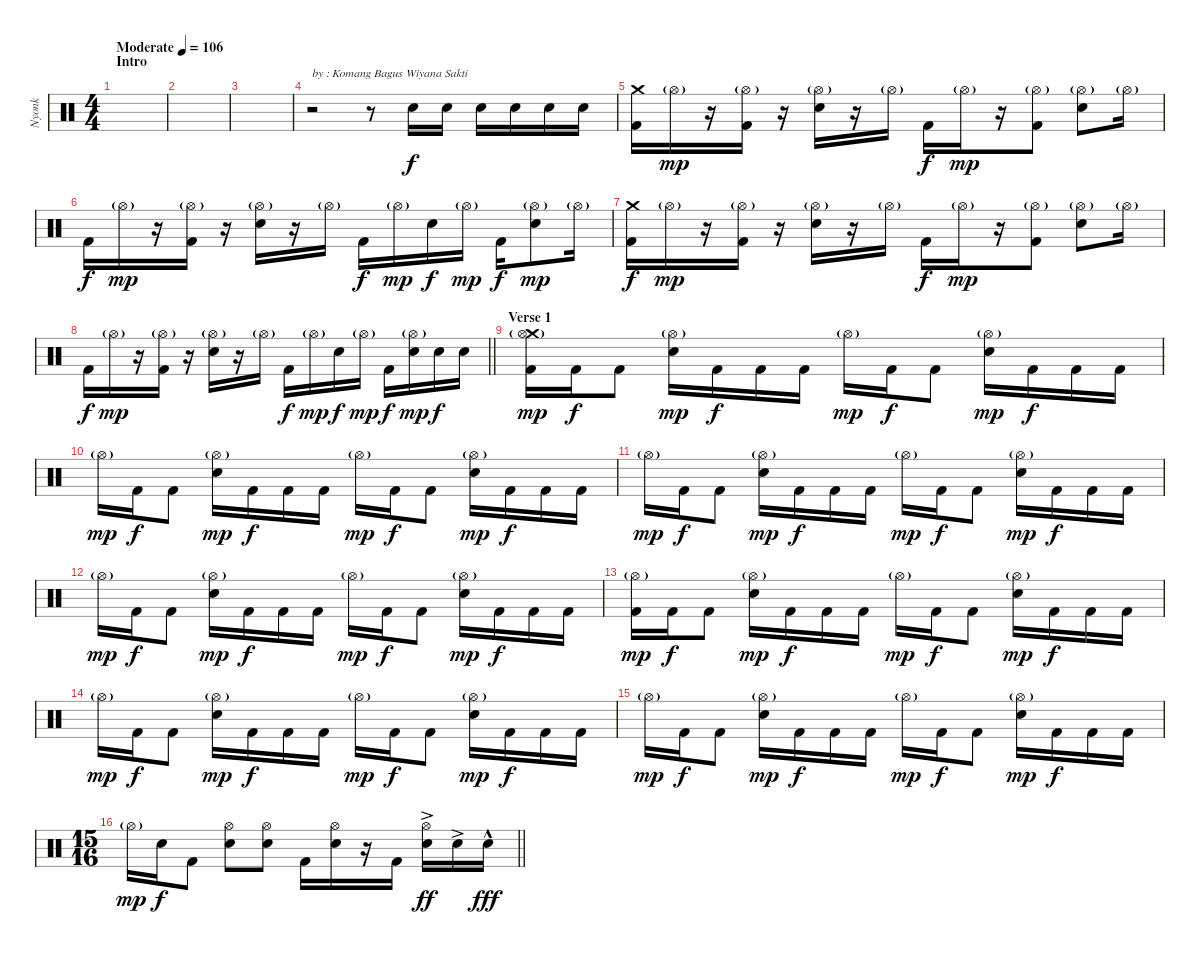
\track ("Nyonk" "Nyonk") {instrument percussion}
\staff {score}
\articulation defaults
\ts (4 4)
\section ("" "Intro")
\tempo (106 "Moderate")
\clef neutral
\ks c
|
|
|
r.2{txt "by : Komang Bagus Wiyana Sakti"} r.8 "Electric Snare (hit)".16 "Electric Snare (hit)".16 "Electric Snare (hit)".16 "Electric Snare (hit)".16 "Electric Snare (hit)".16 "Electric Snare (hit)".16 |
("Crash medium (hit)" "Kick (hit) 2").16 "Hi-Hat (open)"{g}.16{dy mp} r.16 ("Hi-Hat (open)"{g} "Kick (hit) 2").16 r.16 ("Hi-Hat (open)"{g} "Electric Snare (hit)").16 r.16 "Hi-Hat (open)"{g}.16 "Kick (hit) 2".16{dy f} "Hi-Hat (open)"{g}.16{dy mp} r.16 ("Hi-Hat (open)"{g} "Kick (hit) 2").8 ("Hi-Hat (open)"{g} "Electric Snare (hit)").8 "Hi-Hat (open)"{g}.16 |
"Kick (hit) 2".16{dy f} "Hi-Hat (open)"{g}.16{dy mp} r.16 ("Hi-Hat (open)"{g} "Kick (hit) 2").16 r.16 ("Hi-Hat (open)"{g} "Electric Snare (hit)").16 r.16 "Hi-Hat (open)"{g}.16 "Kick (hit) 2".16{dy f} "Hi-Hat (open)"{g}.16{dy mp} "Electric Snare (hit)".16{dy f} "Hi-Hat (open)"{g}.16{dy mp} "Kick (hit) 2".16{dy f} ("Hi-Hat (open)"{g} "Electric Snare (hit)").8{dy mp} "Hi-Hat (open)"{g}.16 |
("Crash medium (hit)" "Kick (hit) 2").16{dy f} "Hi-Hat (open)"{g}.16{dy mp} r.16 ("Hi-Hat (open)"{g} "Kick (hit) 2").16 r.16 ("Hi-Hat (open)"{g} "Electric Snare (hit)").16 r.16 "Hi-Hat (open)"{g}.16 "Kick (hit) 2".16{dy f} "Hi-Hat (open)"{g}.16{dy mp} r.16 ("Hi-Hat (open)"{g} "Kick (hit) 2").8 ("Hi-Hat (open)"{g} "Electric Snare (hit)").8 "Hi-Hat (open)"{g}.16 |
\barLineRight lightlight "Kick (hit) 2".16{dy f} "Hi-Hat (open)"{g}.16{dy mp}
r.16 ("Hi-Hat (open)"{g} "Kick (hit) 2").16 r.16 ("Hi-Hat (open)"{g} "Electric Snare (hit)").16 r.16 "Hi-Hat (open)"{g}.16 "Kick (hit) 2".16{dy f} "Hi-Hat (open)"{g}.16{dy mp} "Electric Snare (hit)".16{dy f} "Hi-Hat (open)"{g}.16{dy mp} "Kick (hit) 2".16{dy f} ("Hi-Hat (open)"{g} "Electric Snare (hit)").16{dy mp} "Electric Snare (hit)".16{dy f} "Electric Snare (hit)".16 |
\section ("" "Verse 1")
("Crash medium (hit)" "Hi-Hat (open)"{g} "Kick (hit) 2").16{dy mp} "Kick (hit) 2".16{dy f} "Kick (hit) 2".8 ("Hi-Hat (open)"{g} "Electric Snare (hit)").16{dy mp} "Kick (hit) 2".16{dy f} "Kick (hit) 2".16 "Kick (hit) 2".16 "Hi-Hat (open)"{g}.16{dy mp} "Kick (hit) 2".16{dy f} "Kick (hit) 2".8 ("Hi-Hat (open)"{g} "Electric Snare (hit)").16{dy mp} "Kick (hit) 2".16{dy f} "Kick (hit) 2".16 "Kick (hit) 2".16 |
"Hi-Hat (open)"{g}.16{dy mp} "Kick (hit) 2".16{dy f} "Kick (hit) 2".8 ("Hi-Hat (open)"{g} "Electric Snare (hit)").16{dy mp} "Kick (hit) 2".16{dy f} "Kick (hit) 2".16 "Kick (hit) 2".16 "Hi-Hat (open)"{g}.16{dy mp} "Kick (hit) 2".16{dy f} "Kick (hit) 2".8 ("Hi-Hat (open)"{g} "Electric Snare (hit)").16{dy mp} "Kick (hit) 2".16{dy f} "Kick (hit) 2".16 "Kick (hit) 2".16 |
"Hi-Hat (open)"{g}.16{dy mp} "Kick (hit) 2".16{dy f} "Kick (hit) 2".8 ("Hi-Hat (open)"{g} "Electric Snare (hit)").16{dy mp} "Kick (hit) 2".16{dy f} "Kick (hit) 2".16 "Kick (hit) 2".16 "Hi-Hat (open)"{g}.16{dy mp} "Kick (hit) 2".16{dy f} "Kick (hit) 2".8 ("Hi-Hat (open)"{g} "Electric Snare (hit)").16{dy mp} "Kick (hit) 2".16{dy f} "Kick (hit) 2".16 "Kick (hit) 2".16 |
"Hi-Hat (open)"{g}.16{dy mp} "Kick (hit) 2".16{dy f} "Kick (hit) 2".8 ("Hi-Hat (open)"{g} "Electric Snare (hit)").16{dy mp} "Kick (hit) 2".16{dy f} "Kick (hit) 2".16 "Kick (hit) 2".16 "Hi-Hat (open)"{g}.16{dy mp} "Kick (hit) 2".16{dy f} "Kick (hit) 2".8 ("Hi-Hat (open)"{g} "Electric Snare (hit)").16{dy mp} "Kick (hit) 2".16{dy f} "Kick (hit) 2".16 "Kick (hit) 2".16 |
("Hi-Hat (open)"{g} "Kick (hit) 2").16{dy mp} "Kick (hit) 2".16{dy f} "Kick (hit) 2".8 ("Hi-Hat (open)"{g} "Electric Snare (hit)").16{dy mp} "Kick (hit) 2".16{dy f} "Kick (hit) 2".16 "Kick (hit) 2".16 "Hi-Hat (open)"{g}.16{dy mp} "Kick (hit) 2".16{dy f} "Kick (hit) 2".8 ("Hi-Hat (open)"{g} "Electric Snare (hit)").16{dy mp} "Kick (hit) 2".16{dy f} "Kick (hit) 2".16 "Kick (hit) 2".16 |
"Hi-Hat (open)"{g}.16{dy mp} "Kick (hit) 2".16{dy f} "Kick (hit) 2".8 ("Hi-Hat (open)"{g} "Electric Snare (hit)").16{dy mp} "Kick (hit) 2".16{dy f} "Kick (hit) 2".16 "Kick (hit) 2".16 "Hi-Hat (open)"{g}.16{dy mp} "Kick (hit) 2".16{dy f} "Kick (hit) 2".8 ("Hi-Hat (open)"{g} "Electric Snare (hit)").16{dy mp} "Kick (hit) 2".16{dy f} "Kick (hit) 2".16 "Kick (hit) 2".16 |
"Hi-Hat (open)"{g}.16{dy mp} "Kick (hit) 2".16{dy f} "Kick (hit) 2".8 ("Hi-Hat (open)"{g} "Electric Snare (hit)").16{dy mp} "Kick (hit) 2".16{dy f} "Kick (hit) 2".16 "Kick (hit) 2".16 "Hi-Hat (open)"{g}.16{dy mp} "Kick (hit) 2".16{dy f} "Kick (hit) 2".8 ("Hi-Hat (open)"{g} "Electric Snare (hit)").16{dy mp} "Kick (hit) 2".16{dy f} "Kick (hit) 2".16 "Kick (hit) 2".16 |
\ts (15 16)
\barLineRight lightlight "Hi-Hat (open)"{g}.16{dy mp} "Electric Snare (hit)".16{dy f} "Kick (hit) 2".8
("Hi-Hat (open)" "Electric Snare (hit)").8 ("Hi-Hat (open)" "Electric Snare (hit)").8 "Kick (hit) 2".16 ("Hi-Hat (open)" "Electric Snare (hit)").16 r.16 "Kick (hit) 2".16 ("Hi-Hat (open)" "Electric Snare (hit)"{ac}).16{dy ff} "Electric Snare (hit)"{ac}.16 "Electric Snare (hit)"{hac}.16{dy fff}
